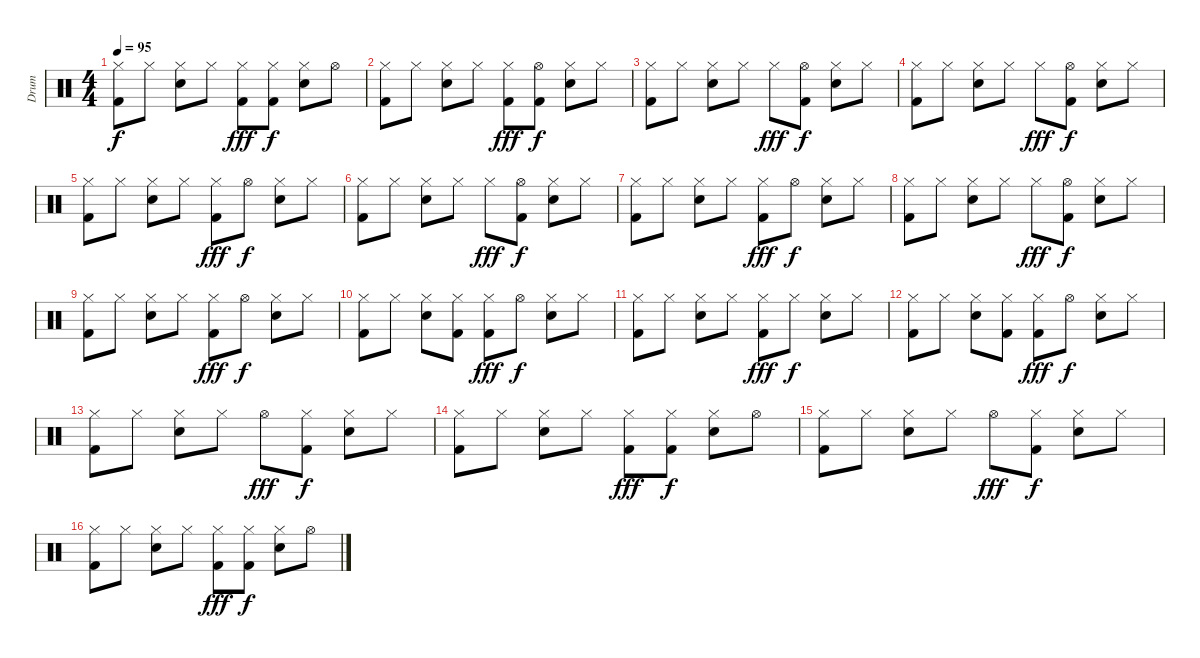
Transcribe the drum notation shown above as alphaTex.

\track ("Drum" "Drum") {instrument percussion}
\staff {score}
\articulation defaults
\ts (4 4)
\tempo 95
\clef neutral
\ks c
("Hi-Hat (closed)" "Kick (hit) 2").8{dy f} "Hi-Hat (closed)".8 ("Hi-Hat (closed)" "Snare (hit) 2").8 "Hi-Hat (closed)".8 ("Hi-Hat (closed)" "Kick (hit) 2").8{dy fff} ("Hi-Hat (closed)" "Kick (hit) 2").8{dy f} ("Hi-Hat (closed)" "Snare (hit) 2").8 "Hi-Hat (open)".8 |
("Hi-Hat (closed)" "Kick (hit) 2").8 "Hi-Hat (closed)".8 ("Hi-Hat (closed)" "Snare (hit) 2").8 "Hi-Hat (closed)".8 ("Hi-Hat (closed)" "Kick (hit) 2").8{dy fff} ("Hi-Hat (open)" "Kick (hit) 2").8{dy f} ("Hi-Hat (closed)" "Snare (hit) 2").8 "Hi-Hat (closed)".8 |
("Hi-Hat (closed)" "Kick (hit) 2").8 "Hi-Hat (closed)".8 ("Hi-Hat (closed)" "Snare (hit) 2").8 "Hi-Hat (closed)".8 "Hi-Hat (closed)".8{dy fff} ("Hi-Hat (open)" "Kick (hit) 2").8{dy f} ("Hi-Hat (closed)" "Snare (hit) 2").8 "Hi-Hat (closed)".8 |
("Hi-Hat (closed)" "Kick (hit) 2").8 "Hi-Hat (closed)".8 ("Hi-Hat (closed)" "Snare (hit) 2").8 "Hi-Hat (closed)".8 "Hi-Hat (closed)".8{dy fff} ("Hi-Hat (open)" "Kick (hit) 2").8{dy f} ("Hi-Hat (closed)" "Snare (hit) 2").8 "Hi-Hat (closed)".8 |
("Hi-Hat (closed)" "Kick (hit) 2").8 "Hi-Hat (closed)".8 ("Hi-Hat (closed)" "Snare (hit) 2").8 "Hi-Hat (closed)".8 ("Hi-Hat (closed)" "Kick (hit) 2").8{dy fff} "Hi-Hat (open)".8{dy f} ("Hi-Hat (closed)" "Snare (hit) 2").8 "Hi-Hat (closed)".8 |
("Hi-Hat (closed)" "Kick (hit) 2").8 "Hi-Hat (closed)".8 ("Hi-Hat (closed)" "Snare (hit) 2").8 "Hi-Hat (closed)".8 "Hi-Hat (closed)".8{dy fff} ("Hi-Hat (open)" "Kick (hit) 2").8{dy f} ("Hi-Hat (closed)" "Snare (hit) 2").8 "Hi-Hat (closed)".8 |
("Hi-Hat (closed)" "Kick (hit) 2").8 "Hi-Hat (closed)".8 ("Hi-Hat (closed)" "Snare (hit) 2").8 "Hi-Hat (closed)".8 ("Hi-Hat (closed)" "Kick (hit) 2").8{dy fff} "Hi-Hat (open)".8{dy f} ("Hi-Hat (closed)" "Snare (hit) 2").8 "Hi-Hat (closed)".8 |
("Hi-Hat (closed)" "Kick (hit) 2").8 "Hi-Hat (closed)".8 ("Hi-Hat (closed)" "Snare (hit) 2").8 "Hi-Hat (closed)".8 "Hi-Hat (closed)".8{dy fff} ("Hi-Hat (open)" "Kick (hit) 2").8{dy f} ("Hi-Hat (closed)" "Snare (hit) 2").8 "Hi-Hat (closed)".8 |
("Hi-Hat (closed)" "Kick (hit) 2").8 "Hi-Hat (closed)".8 ("Hi-Hat (closed)" "Snare (hit) 2").8 "Hi-Hat (closed)".8 ("Hi-Hat (closed)" "Kick (hit) 2").8{dy fff} "Hi-Hat (open)".8{dy f} ("Hi-Hat (closed)" "Snare (hit) 2").8 "Hi-Hat (closed)".8 |
("Hi-Hat (closed)" "Kick (hit) 2").8 "Hi-Hat (closed)".8 ("Hi-Hat (closed)" "Snare (hit) 2").8 ("Hi-Hat (closed)" "Kick (hit) 2").8 ("Hi-Hat (closed)" "Kick (hit) 2").8{dy fff} "Hi-Hat (open)".8{dy f} ("Hi-Hat (closed)" "Snare (hit) 2").8 "Hi-Hat (closed)".8 |
("Hi-Hat (closed)" "Kick (hit) 2").8 "Hi-Hat (closed)".8 ("Hi-Hat (closed)" "Snare (hit) 2").8 "Hi-Hat (closed)".8 ("Hi-Hat (closed)" "Kick (hit) 2").8{dy fff} "Hi-Hat (closed)".8{dy f} ("Hi-Hat (closed)" "Snare (hit) 2").8 "Hi-Hat (closed)".8 |
("Hi-Hat (closed)" "Kick (hit) 2").8 "Hi-Hat (closed)".8 ("Hi-Hat (closed)" "Snare (hit) 2").8 ("Hi-Hat (closed)" "Kick (hit) 2").8 ("Hi-Hat (closed)" "Kick (hit) 2").8{dy fff} "Hi-Hat (open)".8{dy f} ("Hi-Hat (closed)" "Snare (hit) 2").8 "Hi-Hat (closed)".8 |
("Hi-Hat (closed)" "Kick (hit) 2").8 "Hi-Hat (closed)".8 ("Hi-Hat (closed)" "Snare (hit) 2").8 "Hi-Hat (closed)".8 "Hi-Hat (open)".8{dy fff} ("Hi-Hat (closed)" "Kick (hit) 2").8{dy f} ("Hi-Hat (closed)" "Snare (hit) 2").8 "Hi-Hat (closed)".8 |
("Hi-Hat (closed)" "Kick (hit) 2").8 "Hi-Hat (closed)".8 ("Hi-Hat (closed)" "Snare (hit) 2").8 "Hi-Hat (closed)".8 ("Hi-Hat (closed)" "Kick (hit) 2").8{dy fff} ("Hi-Hat (closed)" "Kick (hit) 2").8{dy f} ("Hi-Hat (closed)" "Snare (hit) 2").8 "Hi-Hat (open)".8 |
("Hi-Hat (closed)" "Kick (hit) 2").8 "Hi-Hat (closed)".8 ("Hi-Hat (closed)" "Snare (hit) 2").8 "Hi-Hat (closed)".8 "Hi-Hat (open)".8{dy fff} ("Hi-Hat (closed)" "Kick (hit) 2").8{dy f} ("Hi-Hat (closed)" "Snare (hit) 2").8 "Hi-Hat (closed)".8 |
("Hi-Hat (closed)" "Kick (hit) 2").8 "Hi-Hat (closed)".8 ("Hi-Hat (closed)" "Snare (hit) 2").8 "Hi-Hat (closed)".8 ("Hi-Hat (closed)" "Kick (hit) 2").8{dy fff} ("Hi-Hat (closed)" "Kick (hit) 2").8{dy f} ("Hi-Hat (closed)" "Snare (hit) 2").8 "Hi-Hat (open)".8
